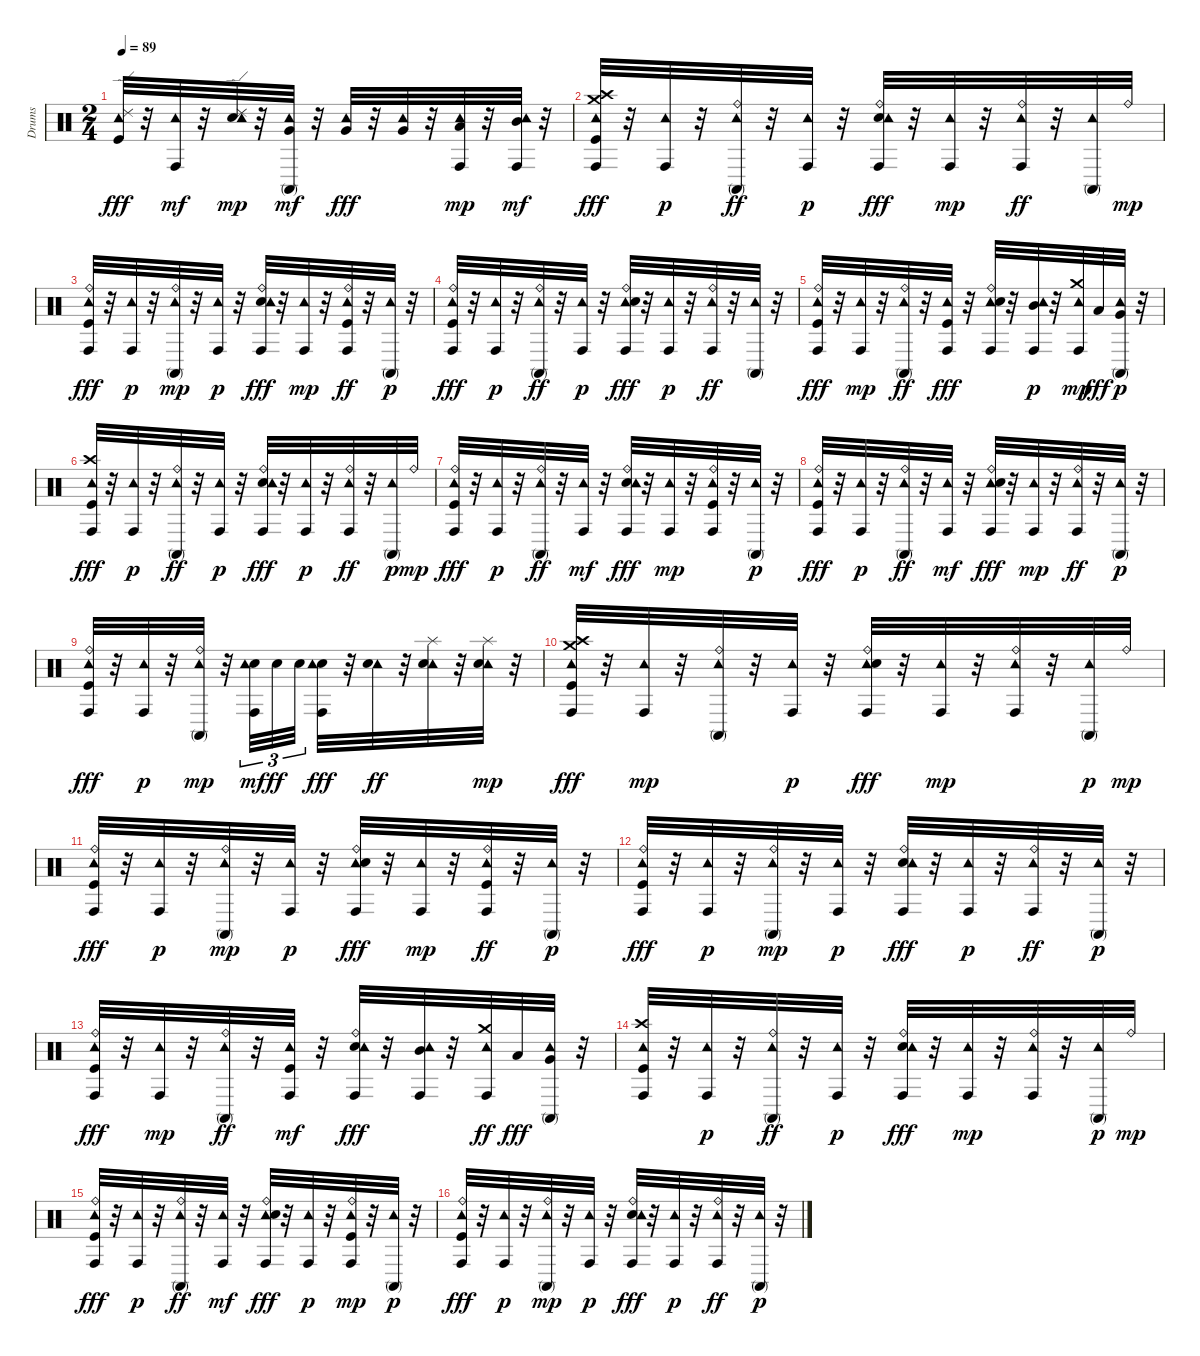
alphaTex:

\track ("Drums" "Drums") {instrument percussion}
\staff {score}
\articulation defaults
\ts (2 4)
\tempo 89
\clef neutral
\ks c
("Kick (hit)" "Tambourine (hit)" "Ride (edge) 2").32{dy fff} r.32 ("Tambourine (hit)" "Conga high (hit)").32{dy mf} r.32 ("Ride (edge) 2" "Snare (hit) 2" "Tambourine (hit)").32{dy mp} r.32 ("Very Low Tom (hit)" "Tambourine (hit)" "Conga high (mute)").32{dy mf} r.32 ("Tambourine (hit)" "Very Low Tom (hit)").32{dy fff} r.32 ("Tambourine (hit)" "Very Low Tom (hit)").32 r.32 ("Low Tom (hit)" "Conga high (hit)" "Tambourine (hit)").32{dy mp} r.32 ("Mid Tom (hit)" "Tambourine (hit)" "Conga high (hit)").32{dy mf} r.32 |
("Crash medium (hit)" "Crash high (hit)" "Conga high (hit)" "Kick (hit)" "Tambourine (hit)").32{dy fff} r.32 ("Conga high (hit)" "Tambourine (hit)").32{dy p} r.32 ("Tambourine (hit)" "Ride (bell)" "Conga high (mute)").32{dy ff} r.32 ("Conga high (hit)" "Tambourine (hit)").32{dy p} r.32 ("Snare (hit) 2" "Conga high (hit)" "Tambourine (hit)" "Ride (bell)").32{dy fff} r.32 ("Tambourine (hit)" "Conga high (hit)").32{dy mp} r.32 ("Tambourine (hit)" "Conga high (hit)" "Ride (bell)").32{dy ff} r.32 ("Tambourine (hit)" "Conga high (mute)").32 "Ride (bell)".32{dy mp} |
("Tambourine (hit)" "Ride (bell)" "Kick (hit)" "Conga high (hit)").32{dy fff} r.32 ("Conga high (hit)" "Tambourine (hit)").32{dy p} r.32 ("Conga high (mute)" "Tambourine (hit)" "Ride (bell)").32{dy mp} r.32 ("Conga high (hit)" "Tambourine (hit)").32{dy p} r.32 ("Conga high (hit)" "Ride (bell)" "Snare (hit) 2" "Tambourine (hit)").32{dy fff} r.32 ("Tambourine (hit)" "Conga high (hit)").32{dy mp} r.32 ("Ride (bell)" "Kick (hit)" "Tambourine (hit)" "Conga high (hit)").32{dy ff} r.32 ("Tambourine (hit)" "Conga high (mute)").32{dy p} r.32 |
("Kick (hit)" "Conga high (hit)" "Ride (bell)" "Tambourine (hit)").32{dy fff} r.32 ("Conga high (hit)" "Tambourine (hit)").32{dy p} r.32 ("Ride (bell)" "Tambourine (hit)" "Conga high (mute)").32{dy ff} r.32 ("Conga high (hit)" "Tambourine (hit)").32{dy p} r.32 ("Ride (bell)" "Conga high (hit)" "Tambourine (hit)" "Snare (hit) 2").32{dy fff} r.32 ("Conga high (hit)" "Tambourine (hit)").32{dy p} r.32 ("Ride (bell)" "Tambourine (hit)" "Conga high (hit)").32{dy ff} r.32 ("Tambourine (hit)" "Conga high (mute)").32 r.32 |
("Kick (hit)" "Tambourine (hit)" "Conga high (hit)" "Ride (bell)").32{dy fff} r.32 ("Tambourine (hit)" "Conga high (hit)").32{dy mp} r.32 ("Ride (bell)" "Tambourine (hit)" "Conga high (mute)").32{dy ff} r.32 ("Conga high (hit)" "Tambourine (hit)" "Kick (hit)").32{dy fff} r.32 ("Ride (bell)" "Conga high (hit)" "Tambourine (hit)" "Snare (hit) 2").32 r.32 ("Mid Tom (hit)" "Conga high (hit)" "Tambourine (hit)").32{dy p} r.32 ("Conga high (hit)" "Tambourine (hit)" "Crash medium (hit)").32{dy mp} "Low Tom (hit)".32{dy fff} ("Very Low Tom (hit)" "Tambourine (hit)" "Conga high (mute)").32{dy p} r.32 |
("Conga high (hit)" "Kick (hit)" "Tambourine (hit)" "Crash high (hit)").32{dy fff} r.32 ("Conga high (hit)" "Tambourine (hit)").32{dy p} r.32 ("Tambourine (hit)" "Conga high (mute)" "Ride (bell)").32{dy ff} r.32 ("Conga high (hit)" "Tambourine (hit)").32{dy p} r.32 ("Snare (hit) 2" "Conga high (hit)" "Ride (bell)" "Tambourine (hit)").32{dy fff} r.32 ("Conga high (hit)" "Tambourine (hit)").32{dy p} r.32 ("Ride (bell)" "Tambourine (hit)" "Conga high (hit)").32{dy ff} r.32 ("Conga high (mute)" "Tambourine (hit)").32{dy p} "Ride (bell)".32{dy mp} |
("Tambourine (hit)" "Ride (bell)" "Kick (hit)" "Conga high (hit)").32{dy fff} r.32 ("Conga high (hit)" "Tambourine (hit)").32{dy p} r.32 ("Tambourine (hit)" "Ride (bell)" "Conga high (mute)").32{dy ff} r.32 ("Tambourine (hit)" "Conga high (hit)").32{dy mf} r.32 ("Snare (hit) 2" "Tambourine (hit)" "Conga high (hit)" "Ride (bell)").32{dy fff} r.32 ("Tambourine (hit)" "Conga high (hit)").32{dy mp} r.32 ("Kick (hit)" "Conga high (hit)" "Tambourine (hit)" "Ride (bell)").32 r.32 ("Tambourine (hit)" "Conga high (mute)").32{dy p} r.32 |
("Conga high (hit)" "Tambourine (hit)" "Kick (hit)" "Ride (bell)").32{dy fff} r.32 ("Conga high (hit)" "Tambourine (hit)").32{dy p} r.32 ("Tambourine (hit)" "Ride (bell)" "Conga high (mute)").32{dy ff} r.32 ("Tambourine (hit)" "Conga high (hit)").32{dy mf} r.32 ("Ride (bell)" "Tambourine (hit)" "Snare (hit) 2" "Conga high (hit)").32{dy fff} r.32 ("Tambourine (hit)" "Conga high (hit)").32{dy mp} r.32 ("Tambourine (hit)" "Ride (bell)" "Conga high (hit)").32{dy ff} r.32 ("Conga high (mute)" "Tambourine (hit)").32{dy p} r.32 |
("Tambourine (hit)" "Ride (bell)" "Kick (hit)" "Conga high (hit)").32{dy fff} r.32 ("Conga high (hit)" "Tambourine (hit)").32{dy p} r.32 ("Conga high (mute)" "Ride (bell)" "Tambourine (hit)").32{dy mp} r.32 ("Snare (hit) 2" "Tambourine (hit)" "Conga high (hit)").32{tu (3 2) dy mf} "Snare (hit) 2".32{tu (3 2) dy ff} "Snare (hit) 2".32{tu (3 2)} ("Snare (hit) 2" "Conga high (hit)" "Tambourine (hit)").32{dy fff} r.32 ("Tambourine (hit)" "Snare (hit) 2").32{dy ff} r.32 ("Tambourine (hit)" "Snare (hit) 2" "Splash (hit)").32 r.32 ("Tambourine (hit)" "Snare (hit) 2" "Splash (hit)").32{dy mp} r.32 |
("Crash high (hit)" "Kick (hit)" "Conga high (hit)" "Crash medium (hit)" "Tambourine (hit)").32{dy fff} r.32 ("Tambourine (hit)" "Conga high (hit)").32{dy mp} r.32 ("Conga high (mute)" "Tambourine (hit)" "Ride (bell)").32 r.32 ("Conga high (hit)" "Tambourine (hit)").32{dy p} r.32 ("Tambourine (hit)" "Conga high (hit)" "Snare (hit) 2" "Ride (bell)").32{dy fff} r.32 ("Tambourine (hit)" "Conga high (hit)").32{dy mp} r.32 ("Conga high (hit)" "Ride (bell)" "Tambourine (hit)").32 r.32 ("Conga high (mute)" "Tambourine (hit)").32{dy p} "Ride (bell)".32{dy mp} |
("Tambourine (hit)" "Ride (bell)" "Kick (hit)" "Conga high (hit)").32{dy fff} r.32 ("Conga high (hit)" "Tambourine (hit)").32{dy p} r.32 ("Ride (bell)" "Conga high (mute)" "Tambourine (hit)").32{dy mp} r.32 ("Conga high (hit)" "Tambourine (hit)").32{dy p} r.32 ("Ride (bell)" "Conga high (hit)" "Tambourine (hit)" "Snare (hit) 2").32{dy fff} r.32 ("Tambourine (hit)" "Conga high (hit)").32{dy mp} r.32 ("Tambourine (hit)" "Ride (bell)" "Kick (hit)" "Conga high (hit)").32{dy ff} r.32 ("Conga high (mute)" "Tambourine (hit)").32{dy p} r.32 |
("Kick (hit)" "Tambourine (hit)" "Ride (bell)" "Conga high (hit)").32{dy fff} r.32 ("Conga high (hit)" "Tambourine (hit)").32{dy p} r.32 ("Conga high (mute)" "Ride (bell)" "Tambourine (hit)").32{dy mp} r.32 ("Conga high (hit)" "Tambourine (hit)").32{dy p} r.32 ("Ride (bell)" "Snare (hit) 2" "Conga high (hit)" "Tambourine (hit)").32{dy fff} r.32 ("Conga high (hit)" "Tambourine (hit)").32{dy p} r.32 ("Tambourine (hit)" "Conga high (hit)" "Ride (bell)").32{dy ff} r.32 ("Conga high (mute)" "Tambourine (hit)").32{dy p} r.32 |
("Kick (hit)" "Tambourine (hit)" "Conga high (hit)" "Ride (bell)").32{dy fff} r.32 ("Tambourine (hit)" "Conga high (hit)").32{dy mp} r.32 ("Tambourine (hit)" "Ride (bell)" "Conga high (mute)").32{dy ff} r.32 ("Tambourine (hit)" "Kick (hit)" "Conga high (hit)").32{dy mf} r.32 ("Snare (hit) 2" "Ride (bell)" "Conga high (hit)" "Tambourine (hit)").32{dy fff} r.32 ("Tambourine (hit)" "Conga high (hit)" "Mid Tom (hit)").32 r.32 ("Tambourine (hit)" "Crash medium (hit)" "Conga high (hit)").32{dy ff} "Low Tom (hit)".32{dy fff} ("Tambourine (hit)" "Conga high (mute)" "Very Low Tom (hit)").32 r.32 |
("Kick (hit)" "Conga high (hit)" "Tambourine (hit)" "Crash high (hit)").32 r.32 ("Conga high (hit)" "Tambourine (hit)").32{dy p} r.32 ("Tambourine (hit)" "Ride (bell)" "Conga high (mute)").32{dy ff} r.32 ("Conga high (hit)" "Tambourine (hit)").32{dy p} r.32 ("Conga high (hit)" "Snare (hit) 2" "Ride (bell)" "Tambourine (hit)").32{dy fff} r.32 ("Tambourine (hit)" "Conga high (hit)").32{dy mp} r.32 ("Conga high (hit)" "Ride (bell)" "Tambourine (hit)").32 r.32 ("Conga high (mute)" "Tambourine (hit)").32{dy p} "Ride (bell)".32{dy mp} |
("Tambourine (hit)" "Conga high (hit)" "Ride (bell)" "Kick (hit)").32{dy fff} r.32 ("Conga high (hit)" "Tambourine (hit)").32{dy p} r.32 ("Ride (bell)" "Tambourine (hit)" "Conga high (mute)").32{dy ff} r.32 ("Tambourine (hit)" "Conga high (hit)").32{dy mf} r.32 ("Tambourine (hit)" "Snare (hit) 2" "Ride (bell)" "Conga high (hit)").32{dy fff} r.32 ("Conga high (hit)" "Tambourine (hit)").32{dy p} r.32 ("Kick (hit)" "Conga high (hit)" "Ride (bell)" "Tambourine (hit)").32{dy mp} r.32 ("Tambourine (hit)" "Conga high (mute)").32{dy p} r.32 |
("Conga high (hit)" "Ride (bell)" "Tambourine (hit)" "Kick (hit)").32{dy fff} r.32 ("Conga high (hit)" "Tambourine (hit)").32{dy p} r.32 ("Conga high (mute)" "Ride (bell)" "Tambourine (hit)").32{dy mp} r.32 ("Conga high (hit)" "Tambourine (hit)").32{dy p} r.32 ("Conga high (hit)" "Snare (hit) 2" "Ride (bell)" "Tambourine (hit)").32{dy fff} r.32 ("Conga high (hit)" "Tambourine (hit)").32{dy p} r.32 ("Tambourine (hit)" "Ride (bell)" "Conga high (hit)").32{dy ff} r.32 ("Conga high (mute)" "Tambourine (hit)").32{dy p} r.32
